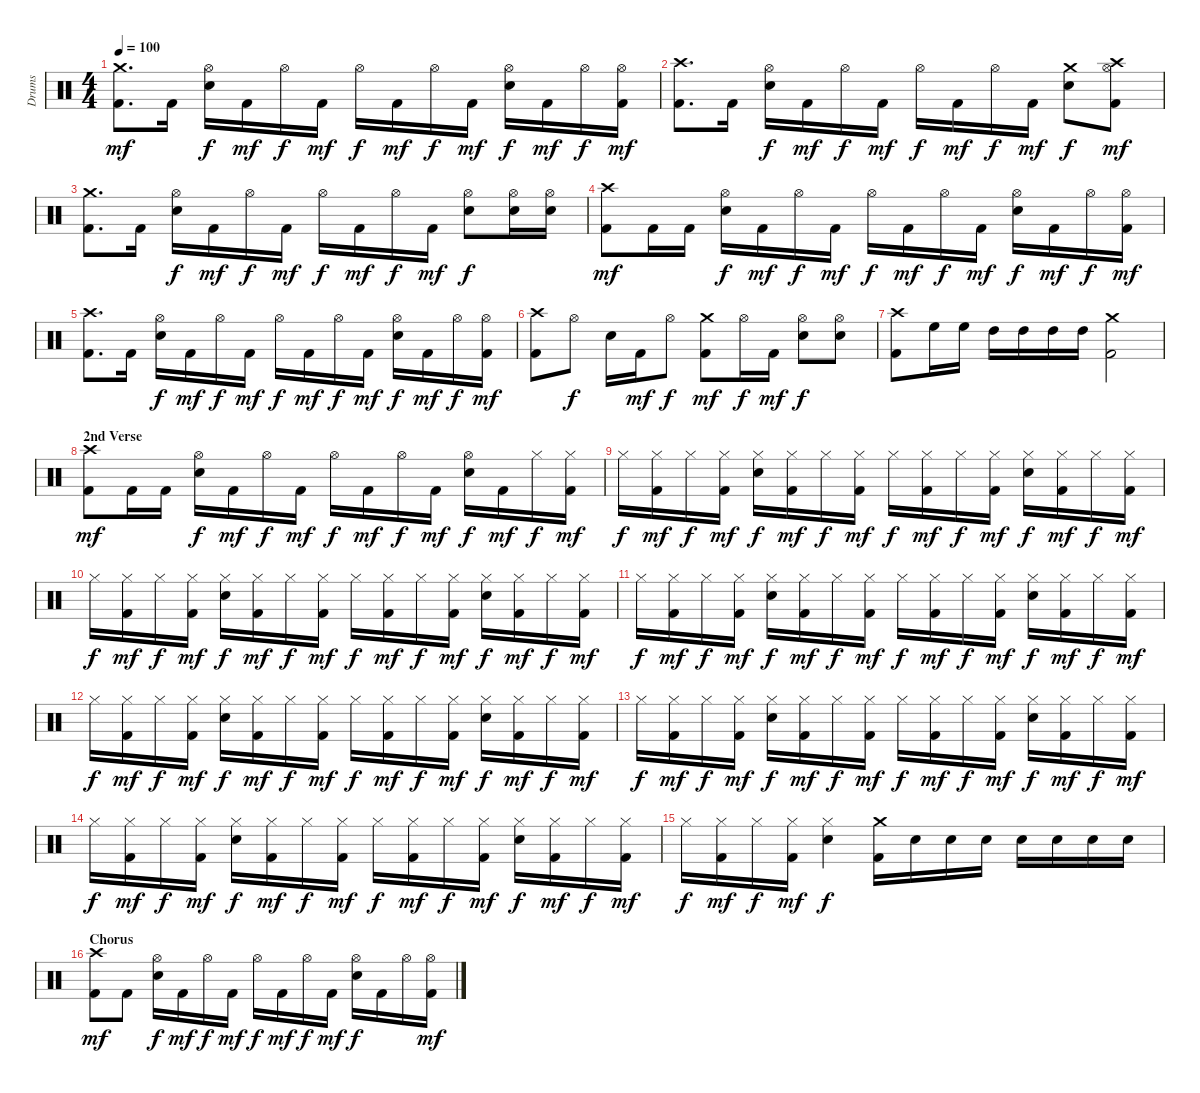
\track ("Drums" "Drums") {instrument percussion}
\staff {score}
\articulation defaults
\ts (4 4)
\tempo 100
\clef neutral
\ks c
("Kick (hit) 2" "Crash medium (hit)").8{d dy mf} "Kick (hit) 2".16 ("Snare (hit) 2" "Hi-Hat (open)").16{dy f} "Kick (hit) 2".16{dy mf} "Hi-Hat (open)".16{dy f} "Kick (hit) 2".16{dy mf} "Hi-Hat (open)".16{dy f} "Kick (hit) 2".16{dy mf} "Hi-Hat (open)".16{dy f} "Kick (hit) 2".16{dy mf} ("Snare (hit) 2" "Hi-Hat (open)").16{dy f} "Kick (hit) 2".16{dy mf} "Hi-Hat (open)".16{dy f} ("Kick (hit) 2" "Hi-Hat (open)").16{dy mf} |
("Kick (hit) 2" "Crash high (hit)").8{d} "Kick (hit) 2".16 ("Snare (hit) 2" "Hi-Hat (open)").16{dy f} "Kick (hit) 2".16{dy mf} "Hi-Hat (open)".16{dy f} "Kick (hit) 2".16{dy mf} "Hi-Hat (open)".16{dy f} "Kick (hit) 2".16{dy mf} "Hi-Hat (open)".16{dy f} "Kick (hit) 2".16{dy mf} ("Snare (hit) 2" "Crash medium (hit)").8{dy f} ("Kick (hit) 2" "Hi-Hat (open)" "Crash high (hit)").8{dy mf} |
("Kick (hit) 2" "Crash medium (hit)").8{d} "Kick (hit) 2".16 ("Snare (hit) 2" "Hi-Hat (open)").16{dy f} "Kick (hit) 2".16{dy mf} "Hi-Hat (open)".16{dy f} "Kick (hit) 2".16{dy mf} "Hi-Hat (open)".16{dy f} "Kick (hit) 2".16{dy mf} "Hi-Hat (open)".16{dy f} "Kick (hit) 2".16{dy mf} ("Snare (hit) 2" "Hi-Hat (open)").8{dy f} ("Snare (hit) 2" "Hi-Hat (open)").16 ("Snare (hit) 2" "Hi-Hat (open)").16 |
("Kick (hit) 2" "Crash high (hit)").8{dy mf} "Kick (hit) 2".16 "Kick (hit) 2".16 ("Snare (hit) 2" "Hi-Hat (open)").16{dy f} "Kick (hit) 2".16{dy mf} "Hi-Hat (open)".16{dy f} "Kick (hit) 2".16{dy mf} "Hi-Hat (open)".16{dy f} "Kick (hit) 2".16{dy mf} "Hi-Hat (open)".16{dy f} "Kick (hit) 2".16{dy mf} ("Snare (hit) 2" "Hi-Hat (open)").16{dy f} "Kick (hit) 2".16{dy mf} "Hi-Hat (open)".16{dy f} ("Kick (hit) 2" "Hi-Hat (open)").16{dy mf} |
("Kick (hit) 2" "Crash high (hit)").8{d} "Kick (hit) 2".16 ("Snare (hit) 2" "Hi-Hat (open)").16{dy f} "Kick (hit) 2".16{dy mf} "Hi-Hat (open)".16{dy f} "Kick (hit) 2".16{dy mf} "Hi-Hat (open)".16{dy f} "Kick (hit) 2".16{dy mf} "Hi-Hat (open)".16{dy f} "Kick (hit) 2".16{dy mf} ("Snare (hit) 2" "Hi-Hat (open)").16{dy f} "Kick (hit) 2".16{dy mf} "Hi-Hat (open)".16{dy f} ("Kick (hit) 2" "Hi-Hat (open)").16{dy mf} |
("Kick (hit) 2" "Crash high (hit)").8 "Hi-Hat (open)".8{dy f} "Snare (hit) 2".16 "Kick (hit) 2".16{dy mf} "Hi-Hat (open)".8{dy f} ("Kick (hit) 2" "Crash medium (hit)").8{dy mf} "Hi-Hat (open)".16{dy f} "Kick (hit) 2".16{dy mf} ("Snare (hit) 2" "Hi-Hat (open)").8{dy f} ("Snare (hit) 2" "Hi-Hat (open)").8 |
("Kick (hit) 2" "Crash high (hit)").8 "High Floor Tom (hit)".16 "High Floor Tom (hit)".16 "High Tom (hit)".16 "High Tom (hit)".16 "High Tom (hit)".16 "High Tom (hit)".16 ("Kick (hit) 2" "Crash medium (hit)").2 |
\section ("" "2nd Verse")
("Kick (hit) 2" "Crash high (hit)").8{dy mf} "Kick (hit) 2".16 "Kick (hit) 2".16 ("Snare (hit) 2" "Hi-Hat (open)").16{dy f} "Kick (hit) 2".16{dy mf} "Hi-Hat (open)".16{dy f} "Kick (hit) 2".16{dy mf} "Hi-Hat (open)".16{dy f} "Kick (hit) 2".16{dy mf} "Hi-Hat (open)".16{dy f} "Kick (hit) 2".16{dy mf} ("Snare (hit) 2" "Hi-Hat (open)").16{dy f} "Kick (hit) 2".16{dy mf} "Hi-Hat (closed)".16{dy f} ("Kick (hit) 2" "Hi-Hat (closed)").16{dy mf} |
"Hi-Hat (closed)".16{dy f} ("Kick (hit) 2" "Hi-Hat (closed)").16{dy mf} "Hi-Hat (closed)".16{dy f} ("Kick (hit) 2" "Hi-Hat (closed)").16{dy mf} ("Snare (hit) 2" "Hi-Hat (closed)").16{dy f} ("Kick (hit) 2" "Hi-Hat (closed)").16{dy mf} "Hi-Hat (closed)".16{dy f} ("Kick (hit) 2" "Hi-Hat (closed)").16{dy mf} "Hi-Hat (closed)".16{dy f} ("Kick (hit) 2" "Hi-Hat (closed)").16{dy mf} "Hi-Hat (closed)".16{dy f} ("Kick (hit) 2" "Hi-Hat (closed)").16{dy mf} ("Snare (hit) 2" "Hi-Hat (closed)").16{dy f} ("Kick (hit) 2" "Hi-Hat (closed)").16{dy mf} "Hi-Hat (closed)".16{dy f} ("Kick (hit) 2" "Hi-Hat (closed)").16{dy mf} |
"Hi-Hat (closed)".16{dy f} ("Kick (hit) 2" "Hi-Hat (closed)").16{dy mf} "Hi-Hat (closed)".16{dy f} ("Kick (hit) 2" "Hi-Hat (closed)").16{dy mf} ("Snare (hit) 2" "Hi-Hat (closed)").16{dy f} ("Kick (hit) 2" "Hi-Hat (closed)").16{dy mf} "Hi-Hat (closed)".16{dy f} ("Kick (hit) 2" "Hi-Hat (closed)").16{dy mf} "Hi-Hat (closed)".16{dy f} ("Kick (hit) 2" "Hi-Hat (closed)").16{dy mf} "Hi-Hat (closed)".16{dy f} ("Kick (hit) 2" "Hi-Hat (closed)").16{dy mf} ("Snare (hit) 2" "Hi-Hat (closed)").16{dy f} ("Kick (hit) 2" "Hi-Hat (closed)").16{dy mf} "Hi-Hat (closed)".16{dy f} ("Kick (hit) 2" "Hi-Hat (closed)").16{dy mf} |
"Hi-Hat (closed)".16{dy f} ("Kick (hit) 2" "Hi-Hat (closed)").16{dy mf} "Hi-Hat (closed)".16{dy f} ("Kick (hit) 2" "Hi-Hat (closed)").16{dy mf} ("Snare (hit) 2" "Hi-Hat (closed)").16{dy f} ("Kick (hit) 2" "Hi-Hat (closed)").16{dy mf} "Hi-Hat (closed)".16{dy f} ("Kick (hit) 2" "Hi-Hat (closed)").16{dy mf} "Hi-Hat (closed)".16{dy f} ("Kick (hit) 2" "Hi-Hat (closed)").16{dy mf} "Hi-Hat (closed)".16{dy f} ("Kick (hit) 2" "Hi-Hat (closed)").16{dy mf} ("Snare (hit) 2" "Hi-Hat (closed)").16{dy f} ("Kick (hit) 2" "Hi-Hat (closed)").16{dy mf} "Hi-Hat (closed)".16{dy f} ("Kick (hit) 2" "Hi-Hat (closed)").16{dy mf} |
"Hi-Hat (closed)".16{dy f} ("Kick (hit) 2" "Hi-Hat (closed)").16{dy mf} "Hi-Hat (closed)".16{dy f} ("Kick (hit) 2" "Hi-Hat (closed)").16{dy mf} ("Snare (hit) 2" "Hi-Hat (closed)").16{dy f} ("Kick (hit) 2" "Hi-Hat (closed)").16{dy mf} "Hi-Hat (closed)".16{dy f} ("Kick (hit) 2" "Hi-Hat (closed)").16{dy mf} "Hi-Hat (closed)".16{dy f} ("Kick (hit) 2" "Hi-Hat (closed)").16{dy mf} "Hi-Hat (closed)".16{dy f} ("Kick (hit) 2" "Hi-Hat (closed)").16{dy mf} ("Snare (hit) 2" "Hi-Hat (closed)").16{dy f} ("Kick (hit) 2" "Hi-Hat (closed)").16{dy mf} "Hi-Hat (closed)".16{dy f} ("Kick (hit) 2" "Hi-Hat (closed)").16{dy mf} |
"Hi-Hat (closed)".16{dy f} ("Kick (hit) 2" "Hi-Hat (closed)").16{dy mf} "Hi-Hat (closed)".16{dy f} ("Kick (hit) 2" "Hi-Hat (closed)").16{dy mf} ("Snare (hit) 2" "Hi-Hat (closed)").16{dy f} ("Kick (hit) 2" "Hi-Hat (closed)").16{dy mf} "Hi-Hat (closed)".16{dy f} ("Kick (hit) 2" "Hi-Hat (closed)").16{dy mf} "Hi-Hat (closed)".16{dy f} ("Kick (hit) 2" "Hi-Hat (closed)").16{dy mf} "Hi-Hat (closed)".16{dy f} ("Kick (hit) 2" "Hi-Hat (closed)").16{dy mf} ("Snare (hit) 2" "Hi-Hat (closed)").16{dy f} ("Kick (hit) 2" "Hi-Hat (closed)").16{dy mf} "Hi-Hat (closed)".16{dy f} ("Kick (hit) 2" "Hi-Hat (closed)").16{dy mf} |
"Hi-Hat (closed)".16{dy f} ("Kick (hit) 2" "Hi-Hat (closed)").16{dy mf} "Hi-Hat (closed)".16{dy f} ("Kick (hit) 2" "Hi-Hat (closed)").16{dy mf} ("Snare (hit) 2" "Hi-Hat (closed)").16{dy f} ("Kick (hit) 2" "Hi-Hat (closed)").16{dy mf} "Hi-Hat (closed)".16{dy f} ("Kick (hit) 2" "Hi-Hat (closed)").16{dy mf} "Hi-Hat (closed)".16{dy f} ("Kick (hit) 2" "Hi-Hat (closed)").16{dy mf} "Hi-Hat (closed)".16{dy f} ("Kick (hit) 2" "Hi-Hat (closed)").16{dy mf} ("Snare (hit) 2" "Hi-Hat (closed)").16{dy f} ("Kick (hit) 2" "Hi-Hat (closed)").16{dy mf} "Hi-Hat (closed)".16{dy f} ("Kick (hit) 2" "Hi-Hat (closed)").16{dy mf} |
"Hi-Hat (closed)".16{dy f} ("Kick (hit) 2" "Hi-Hat (closed)").16{dy mf} "Hi-Hat (closed)".16{dy f} ("Kick (hit) 2" "Hi-Hat (closed)").16{dy mf} ("Snare (hit) 2" "Hi-Hat (closed)").4{dy f} ("Kick (hit) 2" "Crash medium (hit)").16 "Snare (hit) 2".16 "Snare (hit) 2".16 "Snare (hit) 2".16 "Snare (hit) 2".16 "Snare (hit) 2".16 "Snare (hit) 2".16 "Snare (hit) 2".16 |
\section ("" "Chorus")
("Kick (hit) 2" "Crash high (hit)").8{dy mf} "Kick (hit) 2".8 ("Snare (hit) 2" "Hi-Hat (open)").16{dy f} "Kick (hit) 2".16{dy mf} "Hi-Hat (open)".16{dy f} "Kick (hit) 2".16{dy mf} "Hi-Hat (open)".16{dy f} "Kick (hit) 2".16{dy mf} "Hi-Hat (open)".16{dy f} "Kick (hit) 2".16{dy mf} ("Snare (hit) 2" "Hi-Hat (open)").16{dy f} "Kick (hit) 2".16 "Hi-Hat (open)".16 ("Kick (hit) 2" "Hi-Hat (open)").16{dy mf}
